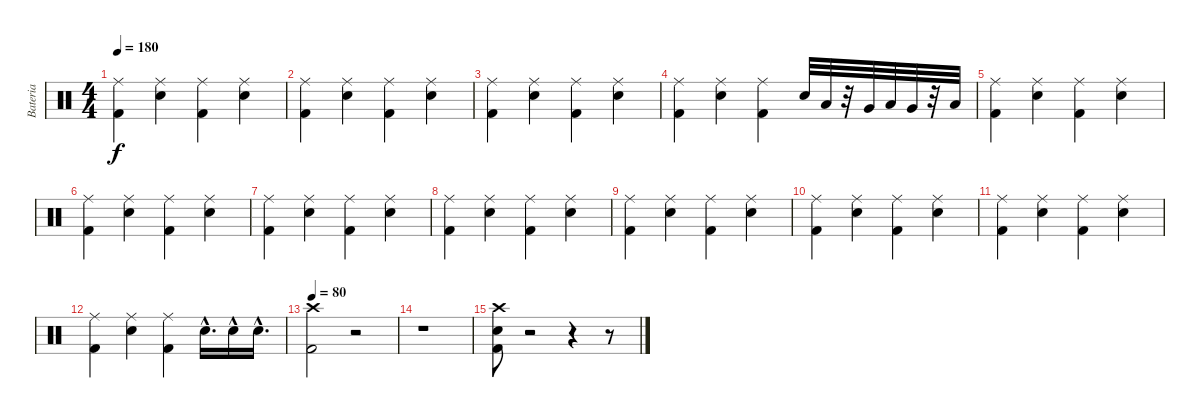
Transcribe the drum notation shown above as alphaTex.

\track ("Bateria" "Bateria") {instrument percussion}
\staff {score}
\articulation defaults
\ts (4 4)
\tempo 180
\clef neutral
\ks c
("Ride (middle)" "Kick (hit) 2").4{dy f} ("Ride (middle)" "Snare (hit) 2").4 ("Ride (middle)" "Kick (hit) 2").4 ("Ride (middle)" "Snare (hit) 2").4 |
("Ride (middle)" "Kick (hit) 2").4 ("Ride (middle)" "Snare (hit) 2").4 ("Ride (middle)" "Kick (hit) 2").4 ("Ride (middle)" "Snare (hit) 2").4 |
("Ride (middle)" "Kick (hit) 2").4 ("Ride (middle)" "Snare (hit) 2").4 ("Ride (middle)" "Kick (hit) 2").4 ("Ride (middle)" "Snare (hit) 2").4 |
("Ride (middle)" "Kick (hit) 2").4 ("Ride (middle)" "Snare (hit) 2").4 ("Ride (middle)" "Kick (hit) 2").4 "Snare (hit) 2".32 "Low Tom (hit)".32 r.32 "Very Low Tom (hit)".32 "Low Tom (hit)".32 "Very Low Tom (hit)".32 r.32 "Low Floor Tom (hit)".32 |
("Kick (hit) 2" "Ride (middle)").4 ("Snare (hit) 2" "Ride (middle)").4 ("Kick (hit) 2" "Ride (middle)").4 ("Ride (middle)" "Snare (hit) 2").4 |
("Ride (middle)" "Kick (hit) 2").4 ("Ride (middle)" "Snare (hit) 2").4 ("Ride (middle)" "Kick (hit) 2").4 ("Ride (middle)" "Snare (hit) 2").4 |
("Ride (middle)" "Kick (hit) 2").4 ("Ride (middle)" "Snare (hit) 2").4 ("Ride (middle)" "Kick (hit) 2").4 ("Ride (middle)" "Snare (hit) 2").4 |
("Ride (middle)" "Kick (hit) 2").4 ("Ride (middle)" "Snare (hit) 2").4 ("Ride (middle)" "Kick (hit) 2").4 ("Ride (middle)" "Snare (hit) 2").4 |
("Ride (middle)" "Kick (hit) 2").4 ("Ride (middle)" "Snare (hit) 2").4 ("Ride (middle)" "Kick (hit) 2").4 ("Ride (middle)" "Snare (hit) 2").4 |
("Ride (middle)" "Kick (hit) 2").4 ("Ride (middle)" "Snare (hit) 2").4 ("Ride (middle)" "Kick (hit) 2").4 ("Ride (middle)" "Snare (hit) 2").4 |
("Ride (middle)" "Kick (hit) 2").4 ("Ride (middle)" "Snare (hit) 2").4 ("Ride (middle)" "Kick (hit) 2").4 ("Ride (middle)" "Snare (hit) 2").4 |
("Ride (middle)" "Kick (hit) 2").4 ("Ride (middle)" "Snare (hit) 2").4 ("Ride (middle)" "Kick (hit) 2").4 "Snare (hit) 2"{hac}.16{d} "Snare (hit) 2"{hac}.16 "Snare (hit) 2"{hac}.16{d} |
\tempo 80
("Kick (hit) 2" "Crash high (hit)").2 r.2 |
r.1 |
("Kick (hit) 2" "Crash high (hit)" "Snare (hit) 2").8 r.2 r.4 r.8
